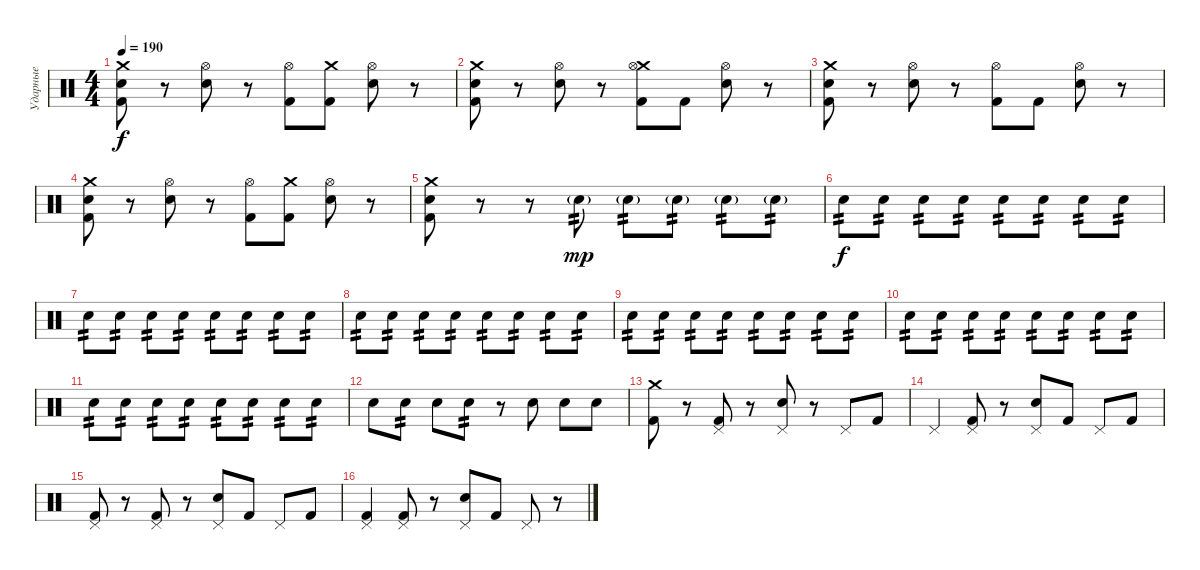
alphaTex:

\track ("Ударные" "Ударные") {instrument percussion}
\staff {score}
\articulation defaults
\ts (4 4)
\tempo 190
\clef neutral
\ks c
("Crash medium (hit)" "Electric Snare (hit)" "Kick (hit) 2").8{dy f} r.8 ("Electric Snare (hit)" "Hi-Hat (open)").8 r.8 ("Kick (hit) 2" "Hi-Hat (open)").8 ("Kick (hit) 2" "Crash medium (hit)").8 ("Electric Snare (hit)" "Hi-Hat (open)").8 r.8 |
("Crash medium (hit)" "Electric Snare (hit)" "Kick (hit) 2").8 r.8 ("Electric Snare (hit)" "Hi-Hat (open)").8 r.8 ("Kick (hit) 2" "Crash medium (hit)" "Hi-Hat (open)").8 "Kick (hit) 2".8 ("Electric Snare (hit)" "Hi-Hat (open)").8 r.8 |
("Crash medium (hit)" "Electric Snare (hit)" "Kick (hit) 2").8 r.8 ("Electric Snare (hit)" "Hi-Hat (open)").8 r.8 ("Kick (hit) 2" "Hi-Hat (open)").8 "Kick (hit) 2".8 ("Electric Snare (hit)" "Hi-Hat (open)").8 r.8 |
("Crash medium (hit)" "Electric Snare (hit)" "Kick (hit) 2").8 r.8 ("Electric Snare (hit)" "Hi-Hat (open)").8 r.8 ("Kick (hit) 2" "Hi-Hat (open)").8 ("Kick (hit) 2" "Crash medium (hit)").8 ("Electric Snare (hit)" "Hi-Hat (open)").8 r.8 |
("Crash medium (hit)" "Electric Snare (hit)" "Kick (hit) 2").8 r.8 r.8 "Electric Snare (hit)"{g}.8{tp 2 dy mp} "Electric Snare (hit)"{g}.8{tp 2} "Electric Snare (hit)"{g}.8{tp 2} "Electric Snare (hit)"{g}.8{tp 2} "Electric Snare (hit)"{g}.8{tp 2} |
"Electric Snare (hit)".8{tp 2 dy f} "Electric Snare (hit)".8{tp 2} "Electric Snare (hit)".8{tp 2} "Electric Snare (hit)".8{tp 2} "Electric Snare (hit)".8{tp 2} "Electric Snare (hit)".8{tp 2} "Electric Snare (hit)".8{tp 2} "Electric Snare (hit)".8{tp 2} |
"Electric Snare (hit)".8{tp 2} "Electric Snare (hit)".8{tp 2} "Electric Snare (hit)".8{tp 2} "Electric Snare (hit)".8{tp 2} "Electric Snare (hit)".8{tp 2} "Electric Snare (hit)".8{tp 2} "Electric Snare (hit)".8{tp 2} "Electric Snare (hit)".8{tp 2} |
"Electric Snare (hit)".8{tp 2} "Electric Snare (hit)".8{tp 2} "Electric Snare (hit)".8{tp 2} "Electric Snare (hit)".8{tp 2} "Electric Snare (hit)".8{tp 2} "Electric Snare (hit)".8{tp 2} "Electric Snare (hit)".8{tp 2} "Electric Snare (hit)".8{tp 2} |
"Electric Snare (hit)".8{tp 2} "Electric Snare (hit)".8{tp 2} "Electric Snare (hit)".8{tp 2} "Electric Snare (hit)".8{tp 2} "Electric Snare (hit)".8{tp 2} "Electric Snare (hit)".8{tp 2} "Electric Snare (hit)".8{tp 2} "Electric Snare (hit)".8{tp 2} |
"Electric Snare (hit)".8{tp 2} "Electric Snare (hit)".8{tp 2} "Electric Snare (hit)".8{tp 2} "Electric Snare (hit)".8{tp 2} "Electric Snare (hit)".8{tp 2} "Electric Snare (hit)".8{tp 2} "Electric Snare (hit)".8{tp 2} "Electric Snare (hit)".8{tp 2} |
"Electric Snare (hit)".8{tp 2} "Electric Snare (hit)".8{tp 2} "Electric Snare (hit)".8{tp 2} "Electric Snare (hit)".8{tp 2} "Electric Snare (hit)".8{tp 2} "Electric Snare (hit)".8{tp 2} "Electric Snare (hit)".8{tp 2} "Electric Snare (hit)".8{tp 2} |
"Electric Snare (hit)".8 "Electric Snare (hit)".8{tp 2} "Electric Snare (hit)".8 "Electric Snare (hit)".8{tp 2} r.8 "Electric Snare (hit)".8 "Electric Snare (hit)".8 "Electric Snare (hit)".8 |
("Crash medium (hit)" "Kick (hit) 2").8 r.8 ("Pedal Hi-Hat (hit)" "Kick (hit) 2").8 r.8 ("Pedal Hi-Hat (hit)" "Electric Snare (hit)").8 r.8 "Pedal Hi-Hat (hit)".8 "Kick (hit) 2".8 |
"Pedal Hi-Hat (hit)".4 ("Pedal Hi-Hat (hit)" "Kick (hit) 2").8 r.8 ("Pedal Hi-Hat (hit)" "Electric Snare (hit)").8 "Kick (hit) 2".8 "Pedal Hi-Hat (hit)".8 "Kick (hit) 2".8 |
("Pedal Hi-Hat (hit)" "Kick (hit) 2").8 r.8 ("Pedal Hi-Hat (hit)" "Kick (hit) 2").8 r.8 ("Pedal Hi-Hat (hit)" "Electric Snare (hit)").8 "Kick (hit) 2".8 "Pedal Hi-Hat (hit)".8 "Kick (hit) 2".8 |
("Pedal Hi-Hat (hit)" "Kick (hit) 2").4 ("Pedal Hi-Hat (hit)" "Kick (hit) 2").8 r.8 ("Pedal Hi-Hat (hit)" "Electric Snare (hit)").8 "Kick (hit) 2".8 "Pedal Hi-Hat (hit)".8 r.8
